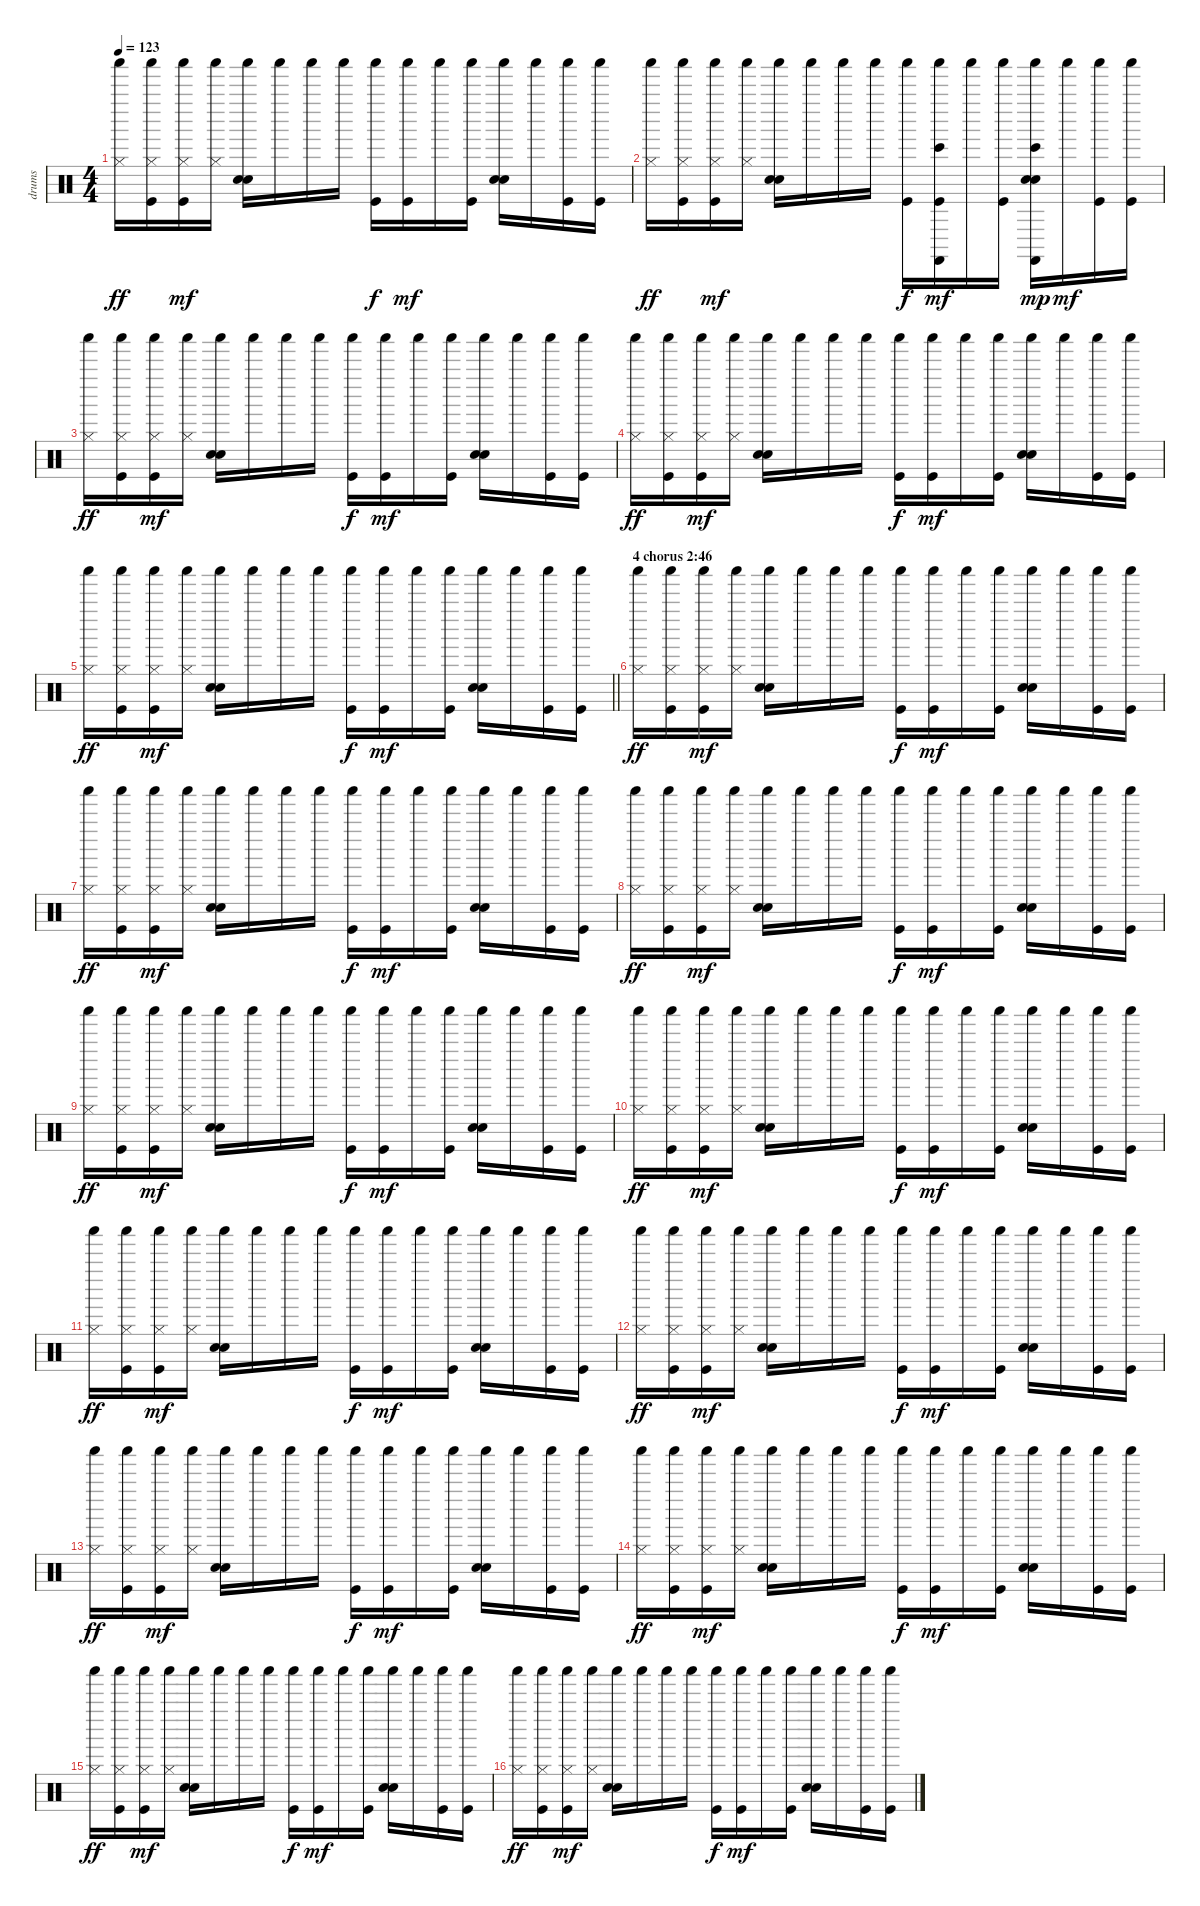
\track ("drums" "drums") {instrument percussion}
\staff {score}
\articulation defaults
\ts (4 4)
\tempo 123
\clef neutral
\ks c
("Shaker (hit)" "Hi-Hat (closed)").16{dy ff} ("Shaker (hit)" "Hi-Hat (closed)" "Kick (hit)").16 ("Shaker (hit)" "Hi-Hat (closed)" "Kick (hit)").16{dy mf} ("Shaker (hit)" "Hi-Hat (closed)").16 ("Shaker (hit)" "Electric Snare (hit)" "Hand Clap (hit)").16 "Shaker (hit)".16 "Shaker (hit)".16 "Shaker (hit)".16 ("Shaker (hit)" "Kick (hit)").16{dy f} ("Shaker (hit)" "Kick (hit)").16{dy mf} "Shaker (hit)".16 ("Shaker (hit)" "Kick (hit)").16 ("Shaker (hit)" "Electric Snare (hit)" "Hand Clap (hit)").16 "Shaker (hit)".16 ("Shaker (hit)" "Kick (hit)").16 ("Shaker (hit)" "Kick (hit)").16 |
("Shaker (hit)" "Hi-Hat (closed)").16{dy ff} ("Shaker (hit)" "Hi-Hat (closed)" "Kick (hit)").16 ("Shaker (hit)" "Hi-Hat (closed)" "Kick (hit)").16{dy mf} ("Shaker (hit)" "Hi-Hat (closed)").16 ("Shaker (hit)" "Electric Snare (hit)" "Hand Clap (hit)").16 "Shaker (hit)".16 "Shaker (hit)".16 "Shaker (hit)".16 ("Shaker (hit)" "Kick (hit)").16{dy f} ("Shaker (hit)" "Bongo High (hit)" "Castanets (hit)" "Kick (hit)").16{dy mf} "Shaker (hit)".16 ("Shaker (hit)" "Kick (hit)").16 ("Shaker (hit)" "Electric Snare (hit)" "Hand Clap (hit)" "Bongo High (hit)" "Castanets (hit)").16{dy mp} "Shaker (hit)".16{dy mf} ("Shaker (hit)" "Kick (hit)").16 ("Shaker (hit)" "Kick (hit)").16 |
("Shaker (hit)" "Hi-Hat (closed)").16{dy ff} ("Shaker (hit)" "Hi-Hat (closed)" "Kick (hit)").16 ("Shaker (hit)" "Hi-Hat (closed)" "Kick (hit)").16{dy mf} ("Shaker (hit)" "Hi-Hat (closed)").16 ("Shaker (hit)" "Electric Snare (hit)" "Hand Clap (hit)").16 "Shaker (hit)".16 "Shaker (hit)".16 "Shaker (hit)".16 ("Shaker (hit)" "Kick (hit)").16{dy f} ("Shaker (hit)" "Kick (hit)").16{dy mf} "Shaker (hit)".16 ("Shaker (hit)" "Kick (hit)").16 ("Shaker (hit)" "Electric Snare (hit)" "Hand Clap (hit)").16 "Shaker (hit)".16 ("Shaker (hit)" "Kick (hit)").16 ("Shaker (hit)" "Kick (hit)").16 |
("Shaker (hit)" "Hi-Hat (closed)").16{dy ff} ("Shaker (hit)" "Hi-Hat (closed)" "Kick (hit)").16 ("Shaker (hit)" "Hi-Hat (closed)" "Kick (hit)").16{dy mf} ("Shaker (hit)" "Hi-Hat (closed)").16 ("Shaker (hit)" "Electric Snare (hit)" "Hand Clap (hit)").16 "Shaker (hit)".16 "Shaker (hit)".16 "Shaker (hit)".16 ("Shaker (hit)" "Kick (hit)").16{dy f} ("Shaker (hit)" "Kick (hit)").16{dy mf} "Shaker (hit)".16 ("Shaker (hit)" "Kick (hit)").16 ("Shaker (hit)" "Electric Snare (hit)" "Hand Clap (hit)").16 "Shaker (hit)".16 ("Shaker (hit)" "Kick (hit)").16 ("Shaker (hit)" "Kick (hit)").16 |
\barLineRight lightlight
("Shaker (hit)" "Hi-Hat (closed)").16{dy ff} ("Shaker (hit)" "Hi-Hat (closed)" "Kick (hit)").16 ("Shaker (hit)" "Hi-Hat (closed)" "Kick (hit)").16{dy mf} ("Shaker (hit)" "Hi-Hat (closed)").16 ("Shaker (hit)" "Electric Snare (hit)" "Hand Clap (hit)").16 "Shaker (hit)".16 "Shaker (hit)".16 "Shaker (hit)".16 ("Shaker (hit)" "Kick (hit)").16{dy f} ("Shaker (hit)" "Kick (hit)").16{dy mf} "Shaker (hit)".16 ("Shaker (hit)" "Kick (hit)").16 ("Shaker (hit)" "Electric Snare (hit)" "Hand Clap (hit)").16 "Shaker (hit)".16 ("Shaker (hit)" "Kick (hit)").16 ("Shaker (hit)" "Kick (hit)").16 |
\section ("" "4 chorus 2:46")
("Shaker (hit)" "Hi-Hat (closed)").16{dy ff} ("Shaker (hit)" "Hi-Hat (closed)" "Kick (hit)").16 ("Shaker (hit)" "Hi-Hat (closed)" "Kick (hit)").16{dy mf} ("Shaker (hit)" "Hi-Hat (closed)").16 ("Shaker (hit)" "Electric Snare (hit)" "Hand Clap (hit)").16 "Shaker (hit)".16 "Shaker (hit)".16 "Shaker (hit)".16 ("Shaker (hit)" "Kick (hit)").16{dy f} ("Shaker (hit)" "Kick (hit)").16{dy mf} "Shaker (hit)".16 ("Shaker (hit)" "Kick (hit)").16 ("Shaker (hit)" "Electric Snare (hit)" "Hand Clap (hit)").16 "Shaker (hit)".16 ("Shaker (hit)" "Kick (hit)").16 ("Shaker (hit)" "Kick (hit)").16 |
("Shaker (hit)" "Hi-Hat (closed)").16{dy ff} ("Shaker (hit)" "Hi-Hat (closed)" "Kick (hit)").16 ("Shaker (hit)" "Hi-Hat (closed)" "Kick (hit)").16{dy mf} ("Shaker (hit)" "Hi-Hat (closed)").16 ("Shaker (hit)" "Electric Snare (hit)" "Hand Clap (hit)").16 "Shaker (hit)".16 "Shaker (hit)".16 "Shaker (hit)".16 ("Shaker (hit)" "Kick (hit)").16{dy f} ("Shaker (hit)" "Kick (hit)").16{dy mf} "Shaker (hit)".16 ("Shaker (hit)" "Kick (hit)").16 ("Shaker (hit)" "Electric Snare (hit)" "Hand Clap (hit)").16 "Shaker (hit)".16 ("Shaker (hit)" "Kick (hit)").16 ("Shaker (hit)" "Kick (hit)").16 |
("Shaker (hit)" "Hi-Hat (closed)").16{dy ff} ("Shaker (hit)" "Hi-Hat (closed)" "Kick (hit)").16 ("Shaker (hit)" "Hi-Hat (closed)" "Kick (hit)").16{dy mf} ("Shaker (hit)" "Hi-Hat (closed)").16 ("Shaker (hit)" "Electric Snare (hit)" "Hand Clap (hit)").16 "Shaker (hit)".16 "Shaker (hit)".16 "Shaker (hit)".16 ("Shaker (hit)" "Kick (hit)").16{dy f} ("Shaker (hit)" "Kick (hit)").16{dy mf} "Shaker (hit)".16 ("Shaker (hit)" "Kick (hit)").16 ("Shaker (hit)" "Electric Snare (hit)" "Hand Clap (hit)").16 "Shaker (hit)".16 ("Shaker (hit)" "Kick (hit)").16 ("Shaker (hit)" "Kick (hit)").16 |
("Shaker (hit)" "Hi-Hat (closed)").16{dy ff} ("Shaker (hit)" "Hi-Hat (closed)" "Kick (hit)").16 ("Shaker (hit)" "Hi-Hat (closed)" "Kick (hit)").16{dy mf} ("Shaker (hit)" "Hi-Hat (closed)").16 ("Shaker (hit)" "Electric Snare (hit)" "Hand Clap (hit)").16 "Shaker (hit)".16 "Shaker (hit)".16 "Shaker (hit)".16 ("Shaker (hit)" "Kick (hit)").16{dy f} ("Shaker (hit)" "Kick (hit)").16{dy mf} "Shaker (hit)".16 ("Shaker (hit)" "Kick (hit)").16 ("Shaker (hit)" "Electric Snare (hit)" "Hand Clap (hit)").16 "Shaker (hit)".16 ("Shaker (hit)" "Kick (hit)").16 ("Shaker (hit)" "Kick (hit)").16 |
("Shaker (hit)" "Hi-Hat (closed)").16{dy ff} ("Shaker (hit)" "Hi-Hat (closed)" "Kick (hit)").16 ("Shaker (hit)" "Hi-Hat (closed)" "Kick (hit)").16{dy mf} ("Shaker (hit)" "Hi-Hat (closed)").16 ("Shaker (hit)" "Electric Snare (hit)" "Hand Clap (hit)").16 "Shaker (hit)".16 "Shaker (hit)".16 "Shaker (hit)".16 ("Shaker (hit)" "Kick (hit)").16{dy f} ("Shaker (hit)" "Kick (hit)").16{dy mf} "Shaker (hit)".16 ("Shaker (hit)" "Kick (hit)").16 ("Shaker (hit)" "Electric Snare (hit)" "Hand Clap (hit)").16 "Shaker (hit)".16 ("Shaker (hit)" "Kick (hit)").16 ("Shaker (hit)" "Kick (hit)").16 |
("Shaker (hit)" "Hi-Hat (closed)").16{dy ff} ("Shaker (hit)" "Hi-Hat (closed)" "Kick (hit)").16 ("Shaker (hit)" "Hi-Hat (closed)" "Kick (hit)").16{dy mf} ("Shaker (hit)" "Hi-Hat (closed)").16 ("Shaker (hit)" "Electric Snare (hit)" "Hand Clap (hit)").16 "Shaker (hit)".16 "Shaker (hit)".16 "Shaker (hit)".16 ("Shaker (hit)" "Kick (hit)").16{dy f} ("Shaker (hit)" "Kick (hit)").16{dy mf} "Shaker (hit)".16 ("Shaker (hit)" "Kick (hit)").16 ("Shaker (hit)" "Electric Snare (hit)" "Hand Clap (hit)").16 "Shaker (hit)".16 ("Shaker (hit)" "Kick (hit)").16 ("Shaker (hit)" "Kick (hit)").16 |
("Shaker (hit)" "Hi-Hat (closed)").16{dy ff} ("Shaker (hit)" "Hi-Hat (closed)" "Kick (hit)").16 ("Shaker (hit)" "Hi-Hat (closed)" "Kick (hit)").16{dy mf} ("Shaker (hit)" "Hi-Hat (closed)").16 ("Shaker (hit)" "Electric Snare (hit)" "Hand Clap (hit)").16 "Shaker (hit)".16 "Shaker (hit)".16 "Shaker (hit)".16 ("Shaker (hit)" "Kick (hit)").16{dy f} ("Shaker (hit)" "Kick (hit)").16{dy mf} "Shaker (hit)".16 ("Shaker (hit)" "Kick (hit)").16 ("Shaker (hit)" "Electric Snare (hit)" "Hand Clap (hit)").16 "Shaker (hit)".16 ("Shaker (hit)" "Kick (hit)").16 ("Shaker (hit)" "Kick (hit)").16 |
("Shaker (hit)" "Hi-Hat (closed)").16{dy ff} ("Shaker (hit)" "Hi-Hat (closed)" "Kick (hit)").16 ("Shaker (hit)" "Hi-Hat (closed)" "Kick (hit)").16{dy mf} ("Shaker (hit)" "Hi-Hat (closed)").16 ("Shaker (hit)" "Electric Snare (hit)" "Hand Clap (hit)").16 "Shaker (hit)".16 "Shaker (hit)".16 "Shaker (hit)".16 ("Shaker (hit)" "Kick (hit)").16{dy f} ("Shaker (hit)" "Kick (hit)").16{dy mf} "Shaker (hit)".16 ("Shaker (hit)" "Kick (hit)").16 ("Shaker (hit)" "Electric Snare (hit)" "Hand Clap (hit)").16 "Shaker (hit)".16 ("Shaker (hit)" "Kick (hit)").16 ("Shaker (hit)" "Kick (hit)").16 |
("Shaker (hit)" "Hi-Hat (closed)").16{dy ff} ("Shaker (hit)" "Hi-Hat (closed)" "Kick (hit)").16 ("Shaker (hit)" "Hi-Hat (closed)" "Kick (hit)").16{dy mf} ("Shaker (hit)" "Hi-Hat (closed)").16 ("Shaker (hit)" "Electric Snare (hit)" "Hand Clap (hit)").16 "Shaker (hit)".16 "Shaker (hit)".16 "Shaker (hit)".16 ("Shaker (hit)" "Kick (hit)").16{dy f} ("Shaker (hit)" "Kick (hit)").16{dy mf} "Shaker (hit)".16 ("Shaker (hit)" "Kick (hit)").16 ("Shaker (hit)" "Electric Snare (hit)" "Hand Clap (hit)").16 "Shaker (hit)".16 ("Shaker (hit)" "Kick (hit)").16 ("Shaker (hit)" "Kick (hit)").16 |
("Shaker (hit)" "Hi-Hat (closed)").16{dy ff} ("Shaker (hit)" "Hi-Hat (closed)" "Kick (hit)").16 ("Shaker (hit)" "Hi-Hat (closed)" "Kick (hit)").16{dy mf} ("Shaker (hit)" "Hi-Hat (closed)").16 ("Shaker (hit)" "Electric Snare (hit)" "Hand Clap (hit)").16 "Shaker (hit)".16 "Shaker (hit)".16 "Shaker (hit)".16 ("Shaker (hit)" "Kick (hit)").16{dy f} ("Shaker (hit)" "Kick (hit)").16{dy mf} "Shaker (hit)".16 ("Shaker (hit)" "Kick (hit)").16 ("Shaker (hit)" "Electric Snare (hit)" "Hand Clap (hit)").16 "Shaker (hit)".16 ("Shaker (hit)" "Kick (hit)").16 ("Shaker (hit)" "Kick (hit)").16 |
("Shaker (hit)" "Hi-Hat (closed)").16{dy ff} ("Shaker (hit)" "Hi-Hat (closed)" "Kick (hit)").16 ("Shaker (hit)" "Hi-Hat (closed)" "Kick (hit)").16{dy mf} ("Shaker (hit)" "Hi-Hat (closed)").16 ("Shaker (hit)" "Electric Snare (hit)" "Hand Clap (hit)").16 "Shaker (hit)".16 "Shaker (hit)".16 "Shaker (hit)".16 ("Shaker (hit)" "Kick (hit)").16{dy f} ("Shaker (hit)" "Kick (hit)").16{dy mf} "Shaker (hit)".16 ("Shaker (hit)" "Kick (hit)").16 ("Shaker (hit)" "Electric Snare (hit)" "Hand Clap (hit)").16 "Shaker (hit)".16 ("Shaker (hit)" "Kick (hit)").16 ("Shaker (hit)" "Kick (hit)").16
